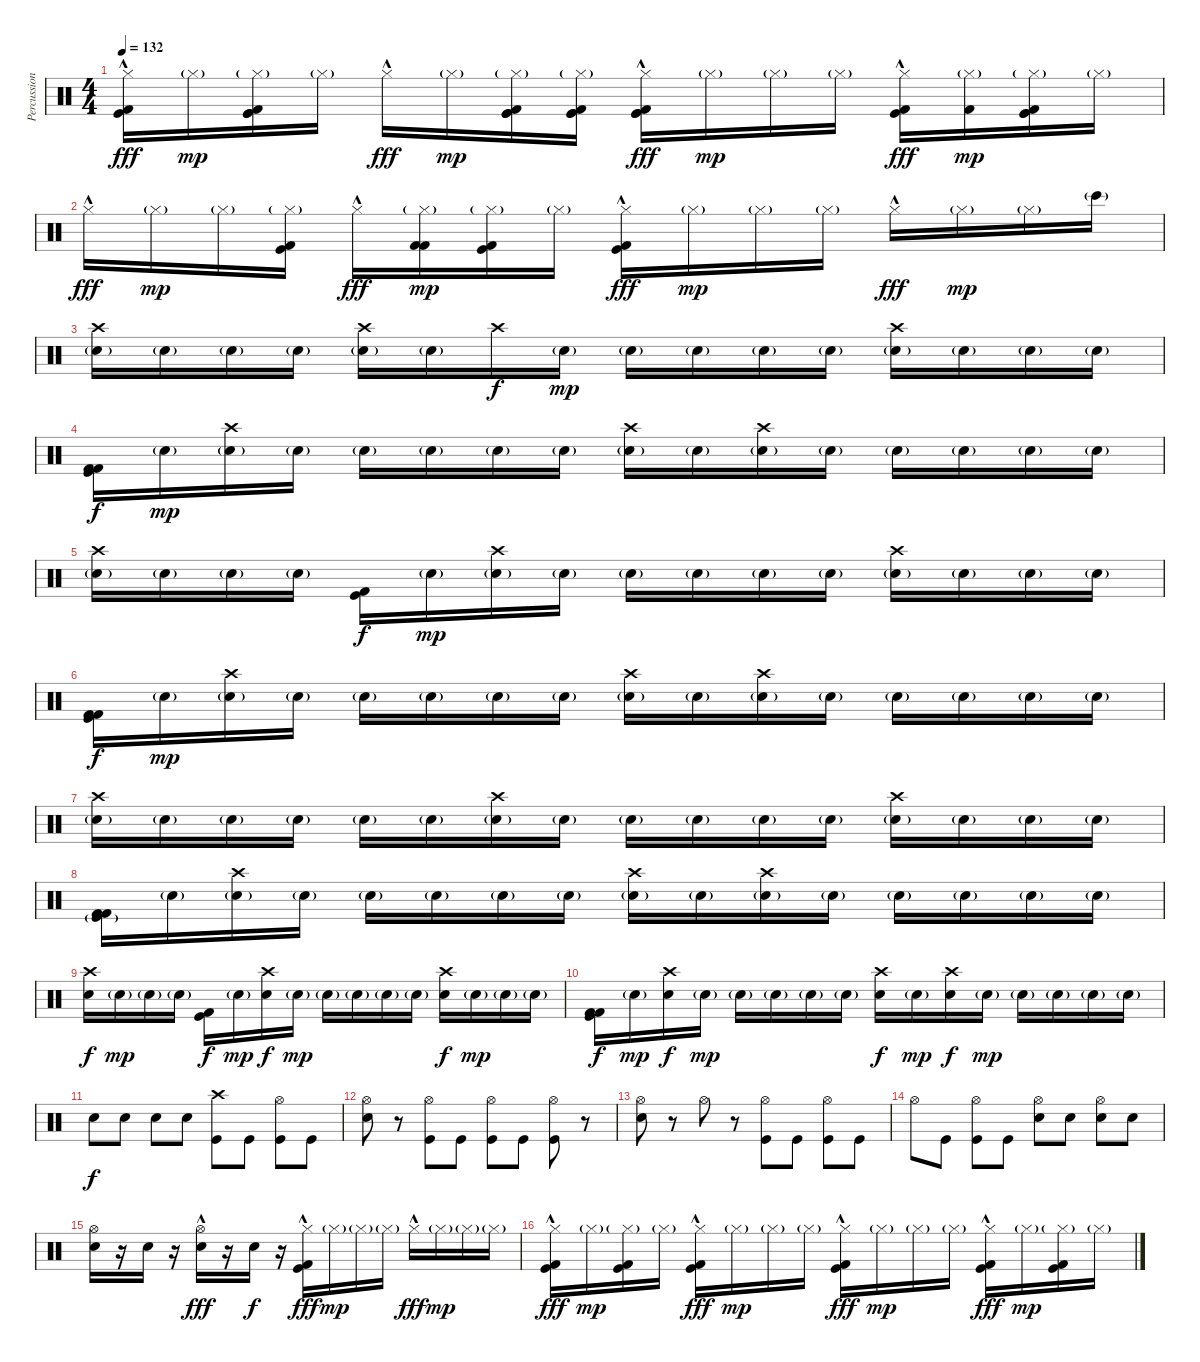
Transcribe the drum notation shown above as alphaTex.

\track ("Percussion" "Percussion") {instrument percussion}
\staff {score}
\articulation defaults
\ts (4 4)
\tempo 132
\clef neutral
\ks c
("Hi-Hat (closed)"{hac} "Kick (hit) 2" "Kick (hit)").16{dy fff} "Hi-Hat (closed)"{g}.16{dy mp} ("Hi-Hat (closed)"{g} "Kick (hit)" "Kick (hit) 2" "Kick (hit)").16 "Hi-Hat (closed)"{g}.16 "Hi-Hat (closed)"{hac}.16{dy fff} "Hi-Hat (closed)"{g}.16{dy mp} ("Hi-Hat (closed)"{g} "Kick (hit)" "Kick (hit) 2" "Kick (hit)").16 ("Hi-Hat (closed)"{g} "Kick (hit)" "Kick (hit) 2" "Kick (hit)").16 ("Hi-Hat (closed)"{hac} "Kick (hit)" "Kick (hit) 2" "Kick (hit)").16{dy fff} "Hi-Hat (closed)"{g}.16{dy mp} "Hi-Hat (closed)"{g}.16 "Hi-Hat (closed)"{g}.16 ("Hi-Hat (closed)"{hac} "Kick (hit)" "Kick (hit) 2").16{dy fff} ("Hi-Hat (closed)"{g} "Kick (hit) 2").16{dy mp} ("Hi-Hat (closed)"{g} "Kick (hit) 2" "Kick (hit)" "Kick (hit)").16 "Hi-Hat (closed)"{g}.16 |
"Hi-Hat (closed)"{hac}.16{dy fff} "Hi-Hat (closed)"{g}.16{dy mp} "Hi-Hat (closed)"{g}.16 ("Hi-Hat (closed)"{g} "Kick (hit) 2" "Kick (hit)").16 "Hi-Hat (closed)"{hac}.16{dy fff} ("Hi-Hat (closed)"{g} "Kick (hit) 2" "Kick (hit) 2").16{dy mp} ("Hi-Hat (closed)"{g} "Kick (hit)" "Kick (hit) 2").16 "Hi-Hat (closed)"{g}.16 ("Hi-Hat (closed)"{hac} "Kick (hit) 2" "Kick (hit)").16{dy fff} "Hi-Hat (closed)"{g}.16{dy mp} "Hi-Hat (closed)"{g}.16 "Hi-Hat (closed)"{g}.16 "Hi-Hat (closed)"{hac}.16{dy fff} "Hi-Hat (closed)"{g}.16{dy mp} "Hi-Hat (closed)"{g}.16 "Bongo High (hit)"{g}.16 |
("Crash high (hit)" "Snare (hit) 2"{g}).16 "Snare (hit) 2"{g}.16 "Snare (hit) 2"{g}.16 "Snare (hit) 2"{g}.16 ("Crash high (hit)" "Snare (hit) 2"{g}).16 "Snare (hit) 2"{g}.16 "Crash high (hit)".16{dy f} "Snare (hit) 2"{g}.16{dy mp} "Snare (hit) 2"{g}.16 "Snare (hit) 2"{g}.16 "Snare (hit) 2"{g}.16 "Snare (hit) 2"{g}.16 ("Crash high (hit)" "Snare (hit) 2"{g}).16 "Snare (hit) 2"{g}.16 "Snare (hit) 2"{g}.16 "Snare (hit) 2"{g}.16 |
("Kick (hit) 2" "Kick (hit)" "Kick (hit) 2").16{dy f} "Snare (hit) 2"{g}.16{dy mp} ("Crash high (hit)" "Snare (hit) 2"{g}).16 "Snare (hit) 2"{g}.16 "Snare (hit) 2"{g}.16 "Snare (hit) 2"{g}.16 "Snare (hit) 2"{g}.16 "Snare (hit) 2"{g}.16 ("Crash high (hit)" "Snare (hit) 2"{g}).16 "Snare (hit) 2"{g}.16 ("Crash high (hit)" "Snare (hit) 2"{g}).16 "Snare (hit) 2"{g}.16 "Snare (hit) 2"{g}.16 "Snare (hit) 2"{g}.16 "Snare (hit) 2"{g}.16 "Snare (hit) 2"{g}.16 |
("Crash high (hit)" "Snare (hit) 2"{g}).16 "Snare (hit) 2"{g}.16 "Snare (hit) 2"{g}.16 "Snare (hit) 2"{g}.16 ("Kick (hit) 2" "Kick (hit)").16{dy f} "Snare (hit) 2"{g}.16{dy mp} ("Crash high (hit)" "Snare (hit) 2"{g}).16 "Snare (hit) 2"{g}.16 "Snare (hit) 2"{g}.16 "Snare (hit) 2"{g}.16 "Snare (hit) 2"{g}.16 "Snare (hit) 2"{g}.16 ("Crash high (hit)" "Snare (hit) 2"{g}).16 "Snare (hit) 2"{g}.16 "Snare (hit) 2"{g}.16 "Snare (hit) 2"{g}.16 |
("Kick (hit) 2" "Kick (hit)" "Kick (hit) 2").16{dy f} "Snare (hit) 2"{g}.16{dy mp} ("Crash high (hit)" "Snare (hit) 2"{g}).16 "Snare (hit) 2"{g}.16 "Snare (hit) 2"{g}.16 "Snare (hit) 2"{g}.16 "Snare (hit) 2"{g}.16 "Snare (hit) 2"{g}.16 ("Crash high (hit)" "Snare (hit) 2"{g}).16 "Snare (hit) 2"{g}.16 ("Crash high (hit)" "Snare (hit) 2"{g}).16 "Snare (hit) 2"{g}.16 "Snare (hit) 2"{g}.16 "Snare (hit) 2"{g}.16 "Snare (hit) 2"{g}.16 "Snare (hit) 2"{g}.16 |
("Crash high (hit)" "Snare (hit) 2"{g}).16 "Snare (hit) 2"{g}.16 "Snare (hit) 2"{g}.16 "Snare (hit) 2"{g}.16 "Snare (hit) 2"{g}.16 "Snare (hit) 2"{g}.16 ("Crash high (hit)" "Snare (hit) 2"{g}).16 "Snare (hit) 2"{g}.16 "Snare (hit) 2"{g}.16 "Snare (hit) 2"{g}.16 "Snare (hit) 2"{g}.16 "Snare (hit) 2"{g}.16 ("Crash high (hit)" "Snare (hit) 2"{g}).16 "Snare (hit) 2"{g}.16 "Snare (hit) 2"{g}.16 "Snare (hit) 2"{g}.16 |
("Kick (hit) 2" "Kick (hit)"{g} "Kick (hit) 2").16 "Snare (hit) 2"{g}.16 ("Crash high (hit)" "Snare (hit) 2"{g}).16 "Snare (hit) 2"{g}.16 "Snare (hit) 2"{g}.16 "Snare (hit) 2"{g}.16 "Snare (hit) 2"{g}.16 "Snare (hit) 2"{g}.16 ("Crash high (hit)" "Snare (hit) 2"{g}).16 "Snare (hit) 2"{g}.16 ("Crash high (hit)" "Snare (hit) 2"{g}).16 "Snare (hit) 2"{g}.16 "Snare (hit) 2"{g}.16 "Snare (hit) 2"{g}.16 "Snare (hit) 2"{g}.16 "Snare (hit) 2"{g}.16 |
("Crash high (hit)" "Snare (hit) 2").16{dy f} "Snare (hit) 2"{g}.16{dy mp} "Snare (hit) 2"{g}.16 "Snare (hit) 2"{g}.16 ("Kick (hit) 2" "Kick (hit)").16{dy f} "Snare (hit) 2"{g}.16{dy mp} ("Crash high (hit)" "Snare (hit) 2").16{dy f} "Snare (hit) 2"{g}.16{dy mp} "Snare (hit) 2"{g}.16 "Snare (hit) 2"{g}.16 "Snare (hit) 2"{g}.16 "Snare (hit) 2"{g}.16 ("Crash high (hit)" "Snare (hit) 2").16{dy f} "Snare (hit) 2"{g}.16{dy mp} "Snare (hit) 2"{g}.16 "Snare (hit) 2"{g}.16 |
("Kick (hit) 2" "Kick (hit)" "Kick (hit) 2").16{dy f} "Snare (hit) 2"{g}.16{dy mp} ("Crash high (hit)" "Snare (hit) 2").16{dy f} "Snare (hit) 2"{g}.16{dy mp} "Snare (hit) 2"{g}.16 "Snare (hit) 2"{g}.16 "Snare (hit) 2"{g}.16 "Snare (hit) 2"{g}.16 ("Crash high (hit)" "Snare (hit) 2").16{dy f} "Snare (hit) 2"{g}.16{dy mp} ("Crash high (hit)" "Snare (hit) 2").16{dy f} "Snare (hit) 2"{g}.16{dy mp} "Snare (hit) 2"{g}.16 "Snare (hit) 2"{g}.16 "Snare (hit) 2"{g}.16 "Snare (hit) 2"{g}.16 |
"Snare (hit) 2".8{dy f} "Snare (hit) 2".8 "Snare (hit) 2".8 "Snare (hit) 2".8 ("Crash high (hit)" "Kick (hit)").8 "Kick (hit)".8 ("Kick (hit)" "Hi-Hat (open)").8 "Kick (hit)".8 |
("Hi-Hat (open)" "Snare (hit) 2").8 r.8 ("Hi-Hat (open)" "Kick (hit)").8 "Kick (hit)".8 ("Hi-Hat (open)" "Kick (hit)").8 "Kick (hit)".8 ("Hi-Hat (open)" "Kick (hit)").8 r.8 |
("Hi-Hat (open)" "Snare (hit) 2").8 r.8 "Hi-Hat (open)".8 r.8 ("Hi-Hat (open)" "Kick (hit)").8 "Kick (hit)".8 ("Hi-Hat (open)" "Kick (hit)").8 "Kick (hit)".8 |
"Hi-Hat (open)".8 "Kick (hit)".8 ("Hi-Hat (open)" "Kick (hit)").8 "Kick (hit)".8 ("Hi-Hat (open)" "Snare (hit) 2").8 "Snare (hit) 2".8 ("Hi-Hat (open)" "Snare (hit) 2").8 "Snare (hit) 2".8 |
("Hi-Hat (open)" "Snare (hit) 2").16 r.16 "Snare (hit) 2".16 r.16 ("Hi-Hat (open)"{hac} "Snare (hit) 2").16{dy fff} r.16 "Snare (hit) 2".16{dy f} r.16 ("Hi-Hat (closed)"{hac} "Kick (hit)" "Kick (hit) 2").16{dy fff} "Hi-Hat (closed)"{g}.16{dy mp} "Hi-Hat (closed)"{g}.16 "Hi-Hat (closed)"{g}.16 "Hi-Hat (closed)"{hac}.16{dy fff} "Hi-Hat (closed)"{g}.16{dy mp} "Hi-Hat (closed)"{g}.16 "Hi-Hat (closed)"{g}.16 |
("Hi-Hat (closed)"{hac} "Kick (hit)" "Kick (hit) 2").16{dy fff} "Hi-Hat (closed)"{g}.16{dy mp} ("Hi-Hat (closed)"{g} "Kick (hit)" "Kick (hit) 2").16 "Hi-Hat (closed)"{g}.16 ("Hi-Hat (closed)"{hac} "Kick (hit)" "Kick (hit) 2").16{dy fff} "Hi-Hat (closed)"{g}.16{dy mp} "Hi-Hat (closed)"{g}.16 "Hi-Hat (closed)"{g}.16 ("Hi-Hat (closed)"{hac} "Kick (hit) 2" "Kick (hit)").16{dy fff} "Hi-Hat (closed)"{g}.16{dy mp} "Hi-Hat (closed)"{g}.16 "Hi-Hat (closed)"{g}.16 ("Hi-Hat (closed)"{hac} "Kick (hit)" "Kick (hit) 2").16{dy fff} "Hi-Hat (closed)"{g}.16{dy mp} ("Hi-Hat (closed)"{g} "Kick (hit)" "Kick (hit) 2").16 "Hi-Hat (closed)"{g}.16
